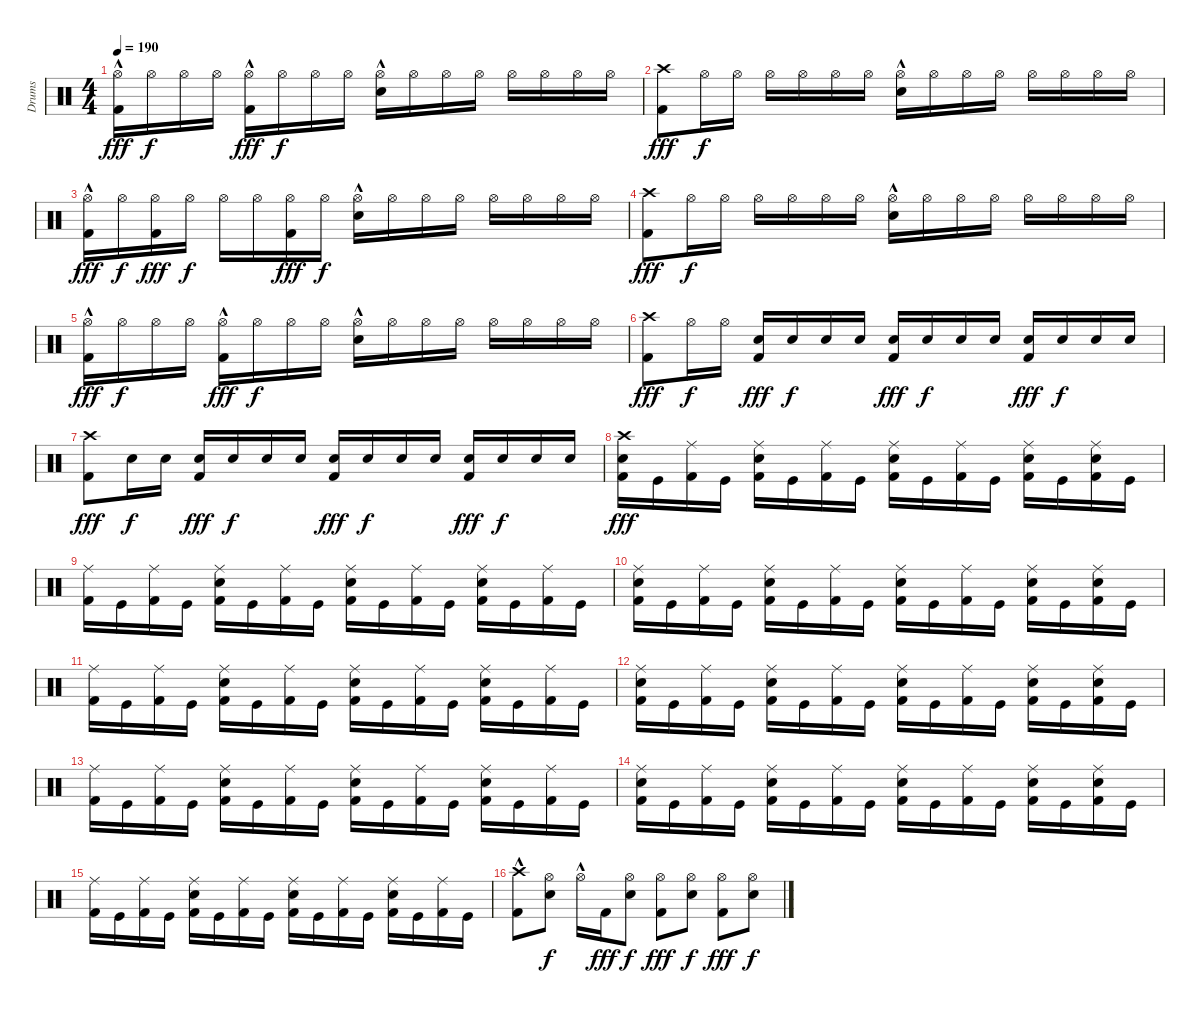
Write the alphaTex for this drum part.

\track ("Drums" "Drums") {instrument percussion}
\staff {score}
\articulation defaults
\ts (4 4)
\tempo 190
\clef neutral
\ks c
("Hi-Hat (open)"{hac} "Kick (hit) 2").16{dy fff} "Hi-Hat (open)".16{dy f} "Hi-Hat (open)".16 "Hi-Hat (open)".16 ("Hi-Hat (open)"{hac} "Kick (hit) 2").16{dy fff} "Hi-Hat (open)".16{dy f} "Hi-Hat (open)".16 "Hi-Hat (open)".16 ("Hi-Hat (open)"{hac} "Electric Snare (hit)").16 "Hi-Hat (open)".16 "Hi-Hat (open)".16 "Hi-Hat (open)".16 "Hi-Hat (open)".16 "Hi-Hat (open)".16 "Hi-Hat (open)".16 "Hi-Hat (open)".16 |
("Crash high (hit)" "Kick (hit) 2").8{dy fff} "Hi-Hat (open)".16{dy f} "Hi-Hat (open)".16 "Hi-Hat (open)".16 "Hi-Hat (open)".16 "Hi-Hat (open)".16 "Hi-Hat (open)".16 ("Hi-Hat (open)"{hac} "Electric Snare (hit)").16 "Hi-Hat (open)".16 "Hi-Hat (open)".16 "Hi-Hat (open)".16 "Hi-Hat (open)".16 "Hi-Hat (open)".16 "Hi-Hat (open)".16 "Hi-Hat (open)".16 |
("Hi-Hat (open)"{hac} "Kick (hit) 2").16{dy fff} "Hi-Hat (open)".16{dy f} ("Hi-Hat (open)" "Kick (hit) 2").16{dy fff} "Hi-Hat (open)".16{dy f} "Hi-Hat (open)".16 "Hi-Hat (open)".16 ("Hi-Hat (open)" "Kick (hit) 2").16{dy fff} "Hi-Hat (open)".16{dy f} ("Hi-Hat (open)"{hac} "Electric Snare (hit)").16 "Hi-Hat (open)".16 "Hi-Hat (open)".16 "Hi-Hat (open)".16 "Hi-Hat (open)".16 "Hi-Hat (open)".16 "Hi-Hat (open)".16 "Hi-Hat (open)".16 |
("Crash high (hit)" "Kick (hit) 2").8{dy fff} "Hi-Hat (open)".16{dy f} "Hi-Hat (open)".16 "Hi-Hat (open)".16 "Hi-Hat (open)".16 "Hi-Hat (open)".16 "Hi-Hat (open)".16 ("Hi-Hat (open)"{hac} "Electric Snare (hit)").16 "Hi-Hat (open)".16 "Hi-Hat (open)".16 "Hi-Hat (open)".16 "Hi-Hat (open)".16 "Hi-Hat (open)".16 "Hi-Hat (open)".16 "Hi-Hat (open)".16 |
("Hi-Hat (open)"{hac} "Kick (hit) 2").16{dy fff} "Hi-Hat (open)".16{dy f} "Hi-Hat (open)".16 "Hi-Hat (open)".16 ("Hi-Hat (open)"{hac} "Kick (hit) 2").16{dy fff} "Hi-Hat (open)".16{dy f} "Hi-Hat (open)".16 "Hi-Hat (open)".16 ("Hi-Hat (open)"{hac} "Electric Snare (hit)").16 "Hi-Hat (open)".16 "Hi-Hat (open)".16 "Hi-Hat (open)".16 "Hi-Hat (open)".16 "Hi-Hat (open)".16 "Hi-Hat (open)".16 "Hi-Hat (open)".16 |
("Crash high (hit)" "Kick (hit) 2").8{dy fff} "Hi-Hat (open)".16{dy f} "Hi-Hat (open)".16 ("Electric Snare (hit)" "Kick (hit) 2").16{dy fff} "Electric Snare (hit)".16{dy f} "Electric Snare (hit)".16 "Electric Snare (hit)".16 ("Electric Snare (hit)" "Kick (hit) 2").16{dy fff} "Electric Snare (hit)".16{dy f} "Electric Snare (hit)".16 "Electric Snare (hit)".16 ("Electric Snare (hit)" "Kick (hit) 2").16{dy fff} "Electric Snare (hit)".16{dy f} "Electric Snare (hit)".16 "Electric Snare (hit)".16 |
("Crash high (hit)" "Kick (hit) 2").8{dy fff} "Electric Snare (hit)".16{dy f} "Electric Snare (hit)".16 ("Electric Snare (hit)" "Kick (hit) 2").16{dy fff} "Electric Snare (hit)".16{dy f} "Electric Snare (hit)".16 "Electric Snare (hit)".16 ("Electric Snare (hit)" "Kick (hit) 2").16{dy fff} "Electric Snare (hit)".16{dy f} "Electric Snare (hit)".16 "Electric Snare (hit)".16 ("Electric Snare (hit)" "Kick (hit) 2").16{dy fff} "Electric Snare (hit)".16{dy f} "Electric Snare (hit)".16 "Electric Snare (hit)".16 |
("Crash high (hit)" "Electric Snare (hit)" "Kick (hit) 2").16{dy fff} "Kick (hit)".16 ("Ride (middle)" "Kick (hit) 2").16 "Kick (hit)".16 ("Ride (middle)" "Electric Snare (hit)" "Kick (hit) 2").16 "Kick (hit)".16 ("Ride (middle)" "Kick (hit) 2").16 "Kick (hit)".16 ("Ride (middle)" "Electric Snare (hit)" "Kick (hit) 2").16 "Kick (hit)".16 ("Ride (middle)" "Kick (hit) 2").16 "Kick (hit)".16 ("Ride (middle)" "Electric Snare (hit)" "Kick (hit) 2").16 "Kick (hit)".16 ("Ride (middle)" "Electric Snare (hit)" "Kick (hit) 2").16 "Kick (hit)".16 |
("Ride (middle)" "Kick (hit) 2").16 "Kick (hit)".16 ("Ride (middle)" "Kick (hit) 2").16 "Kick (hit)".16 ("Ride (middle)" "Electric Snare (hit)" "Kick (hit) 2").16 "Kick (hit)".16 ("Ride (middle)" "Kick (hit) 2").16 "Kick (hit)".16 ("Ride (middle)" "Electric Snare (hit)" "Kick (hit) 2").16 "Kick (hit)".16 ("Ride (middle)" "Kick (hit) 2").16 "Kick (hit)".16 ("Ride (middle)" "Electric Snare (hit)" "Kick (hit) 2").16 "Kick (hit)".16 ("Ride (middle)" "Kick (hit) 2").16 "Kick (hit)".16 |
("Ride (middle)" "Electric Snare (hit)" "Kick (hit) 2").16 "Kick (hit)".16 ("Ride (middle)" "Kick (hit) 2").16 "Kick (hit)".16 ("Ride (middle)" "Electric Snare (hit)" "Kick (hit) 2").16 "Kick (hit)".16 ("Ride (middle)" "Kick (hit) 2").16 "Kick (hit)".16 ("Ride (middle)" "Electric Snare (hit)" "Kick (hit) 2").16 "Kick (hit)".16 ("Ride (middle)" "Kick (hit) 2").16 "Kick (hit)".16 ("Ride (middle)" "Electric Snare (hit)" "Kick (hit) 2").16 "Kick (hit)".16 ("Ride (middle)" "Electric Snare (hit)" "Kick (hit) 2").16 "Kick (hit)".16 |
("Ride (middle)" "Kick (hit) 2").16 "Kick (hit)".16 ("Ride (middle)" "Kick (hit) 2").16 "Kick (hit)".16 ("Ride (middle)" "Electric Snare (hit)" "Kick (hit) 2").16 "Kick (hit)".16 ("Ride (middle)" "Kick (hit) 2").16 "Kick (hit)".16 ("Ride (middle)" "Electric Snare (hit)" "Kick (hit) 2").16 "Kick (hit)".16 ("Ride (middle)" "Kick (hit) 2").16 "Kick (hit)".16 ("Ride (middle)" "Electric Snare (hit)" "Kick (hit) 2").16 "Kick (hit)".16 ("Ride (middle)" "Kick (hit) 2").16 "Kick (hit)".16 |
("Ride (middle)" "Electric Snare (hit)" "Kick (hit) 2").16 "Kick (hit)".16 ("Ride (middle)" "Kick (hit) 2").16 "Kick (hit)".16 ("Ride (middle)" "Electric Snare (hit)" "Kick (hit) 2").16 "Kick (hit)".16 ("Ride (middle)" "Kick (hit) 2").16 "Kick (hit)".16 ("Ride (middle)" "Electric Snare (hit)" "Kick (hit) 2").16 "Kick (hit)".16 ("Ride (middle)" "Kick (hit) 2").16 "Kick (hit)".16 ("Ride (middle)" "Electric Snare (hit)" "Kick (hit) 2").16 "Kick (hit)".16 ("Ride (middle)" "Electric Snare (hit)" "Kick (hit) 2").16 "Kick (hit)".16 |
("Ride (middle)" "Kick (hit) 2").16 "Kick (hit)".16 ("Ride (middle)" "Kick (hit) 2").16 "Kick (hit)".16 ("Ride (middle)" "Electric Snare (hit)" "Kick (hit) 2").16 "Kick (hit)".16 ("Ride (middle)" "Kick (hit) 2").16 "Kick (hit)".16 ("Ride (middle)" "Electric Snare (hit)" "Kick (hit) 2").16 "Kick (hit)".16 ("Ride (middle)" "Kick (hit) 2").16 "Kick (hit)".16 ("Ride (middle)" "Electric Snare (hit)" "Kick (hit) 2").16 "Kick (hit)".16 ("Ride (middle)" "Kick (hit) 2").16 "Kick (hit)".16 |
("Ride (middle)" "Electric Snare (hit)" "Kick (hit) 2").16 "Kick (hit)".16 ("Ride (middle)" "Kick (hit) 2").16 "Kick (hit)".16 ("Ride (middle)" "Electric Snare (hit)" "Kick (hit) 2").16 "Kick (hit)".16 ("Ride (middle)" "Kick (hit) 2").16 "Kick (hit)".16 ("Ride (middle)" "Electric Snare (hit)" "Kick (hit) 2").16 "Kick (hit)".16 ("Ride (middle)" "Kick (hit) 2").16 "Kick (hit)".16 ("Ride (middle)" "Electric Snare (hit)" "Kick (hit) 2").16 "Kick (hit)".16 ("Ride (middle)" "Electric Snare (hit)" "Kick (hit) 2").16 "Kick (hit)".16 |
("Ride (middle)" "Kick (hit) 2").16 "Kick (hit)".16 ("Ride (middle)" "Kick (hit) 2").16 "Kick (hit)".16 ("Ride (middle)" "Electric Snare (hit)" "Kick (hit) 2").16 "Kick (hit)".16 ("Ride (middle)" "Kick (hit) 2").16 "Kick (hit)".16 ("Ride (middle)" "Electric Snare (hit)" "Kick (hit) 2").16 "Kick (hit)".16 ("Ride (middle)" "Kick (hit) 2").16 "Kick (hit)".16 ("Ride (middle)" "Electric Snare (hit)" "Kick (hit) 2").16 "Kick (hit)".16 ("Ride (middle)" "Kick (hit) 2").16 "Kick (hit)".16 |
("Crash high (hit)"{hac} "Kick (hit) 2").8 ("Hi-Hat (open)" "Electric Snare (hit)").8{dy f} "Hi-Hat (open)"{hac}.16 "Kick (hit) 2".16{dy fff} ("Hi-Hat (open)" "Electric Snare (hit)").8{dy f} ("Hi-Hat (open)" "Kick (hit) 2").8{dy fff} ("Hi-Hat (open)" "Electric Snare (hit)").8{dy f} ("Hi-Hat (open)" "Kick (hit) 2").8{dy fff} ("Hi-Hat (open)" "Electric Snare (hit)").8{dy f}
